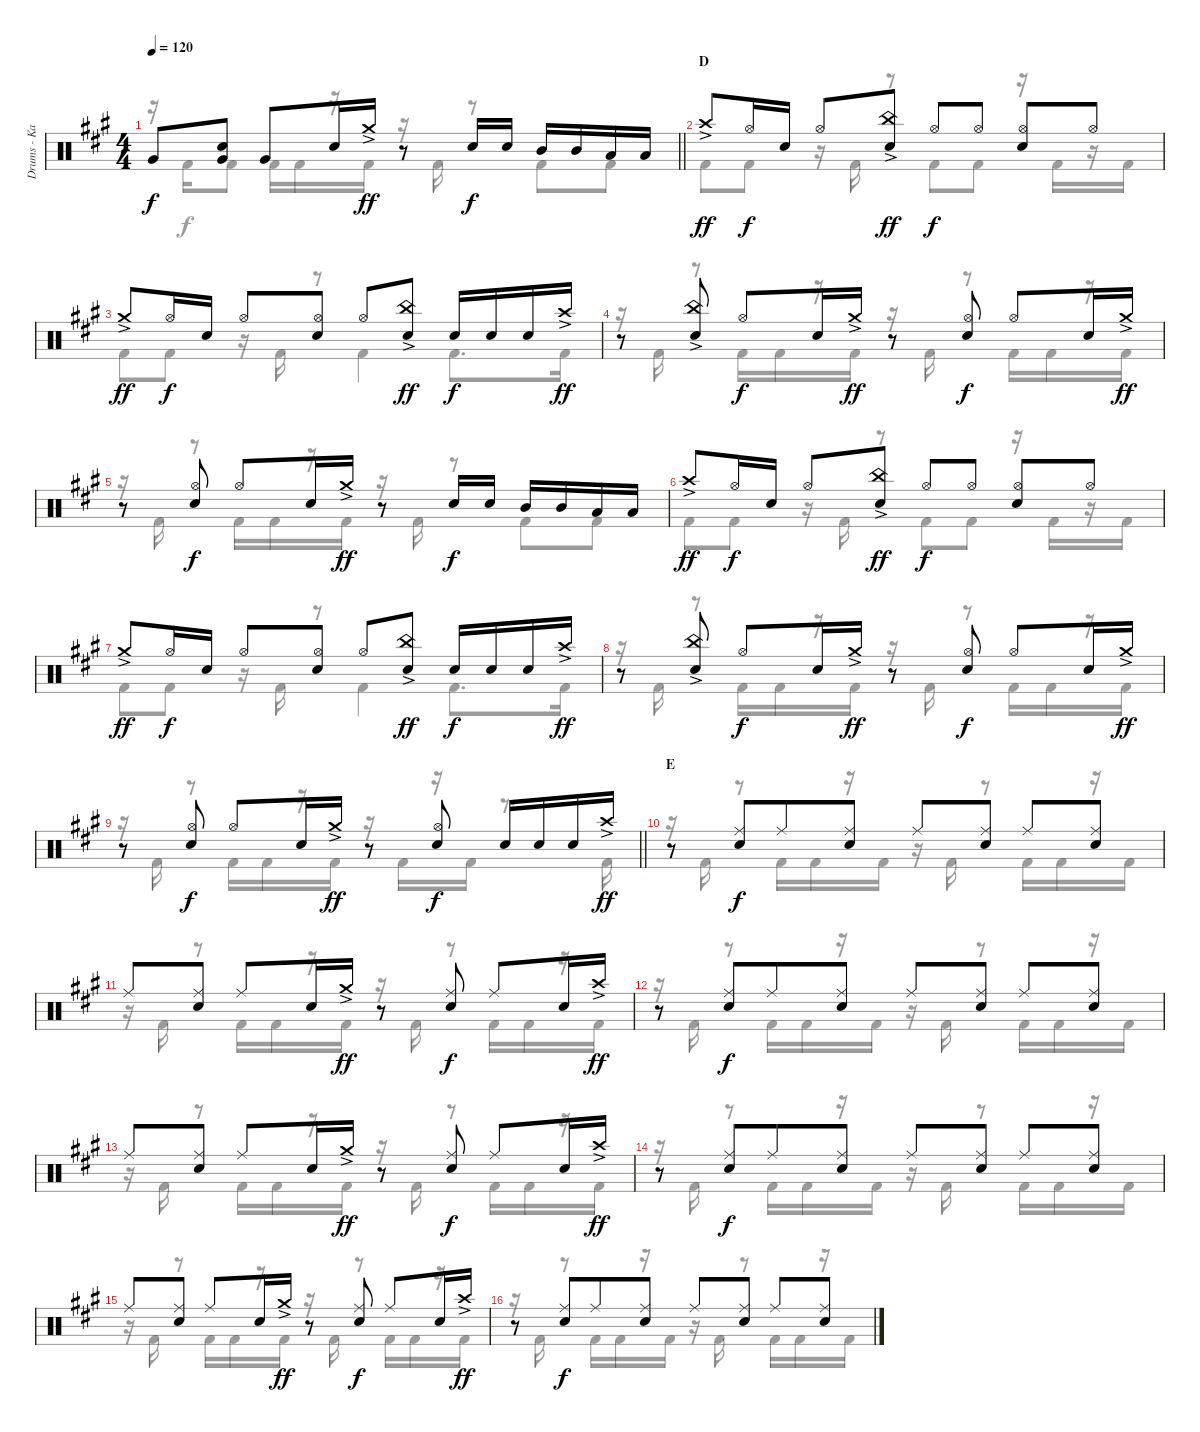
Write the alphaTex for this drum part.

\track ("Drums - Kai" "Drums - Ka") {instrument percussion}
\staff {score}
\articulation defaults
\voice
\ts (4 4)
\tempo 120
\clef neutral
\barLineRight lightlight
\ks a "Very Low Tom (hit)".8{dy f}
("Very Low Tom (hit)" "Snare (hit) 2").8 "Very Low Tom (hit)".8 "Snare (hit) 2".16 "Crash medium (hit)"{ac}.16{dy ff} r.8 "Snare (hit) 2".16{dy f} "Snare (hit) 2".16 "Mid Tom (hit)".16 "Mid Tom (hit)".16 "Low Tom (hit)".16 "Low Tom (hit)".16 |
\section ("" "D")
"Crash high (hit)"{ac}.8{dy ff} "Hi-Hat (open)".16{dy f} "Snare (hit) 2".16 "Hi-Hat (open)".8 ("China (hit)"{ac} "Snare (hit) 2").8{dy ff} "Hi-Hat (open)".8{dy f} "Hi-Hat (open)".8 ("Hi-Hat (open)" "Snare (hit) 2").8 "Hi-Hat (open)".8 |
"Crash medium (hit)"{ac}.8{dy ff} "Hi-Hat (open)".16{dy f} "Snare (hit) 2".16 "Hi-Hat (open)".8 ("Hi-Hat (open)" "Snare (hit) 2").8 "Hi-Hat (open)".8 ("China (hit)"{ac} "Snare (hit) 2").8{dy ff} "Snare (hit) 2".16{dy f} "Snare (hit) 2".16 "Snare (hit) 2".16 "Crash high (hit)"{ac}.16{dy ff} |
r.8 ("China (hit)"{ac} "Snare (hit) 2").8 "Hi-Hat (open)".8{dy f} "Snare (hit) 2".16 "Crash medium (hit)"{ac}.16{dy ff} r.8 ("Hi-Hat (open)" "Snare (hit) 2").8{dy f} "Hi-Hat (open)".8 "Snare (hit) 2".16 "Crash medium (hit)"{ac}.16{dy ff} |
r.8 ("Hi-Hat (open)" "Snare (hit) 2").8{dy f} "Hi-Hat (open)".8 "Snare (hit) 2".16 "Crash medium (hit)"{ac}.16{dy ff} r.8 "Snare (hit) 2".16{dy f} "Snare (hit) 2".16 "Mid Tom (hit)".16 "Mid Tom (hit)".16 "Low Tom (hit)".16 "Low Tom (hit)".16 |
"Crash high (hit)"{ac}.8{dy ff} "Hi-Hat (open)".16{dy f} "Snare (hit) 2".16 "Hi-Hat (open)".8 ("China (hit)"{ac} "Snare (hit) 2").8{dy ff} "Hi-Hat (open)".8{dy f} "Hi-Hat (open)".8 ("Hi-Hat (open)" "Snare (hit) 2").8 "Hi-Hat (open)".8 |
"Crash medium (hit)"{ac}.8{dy ff} "Hi-Hat (open)".16{dy f} "Snare (hit) 2".16 "Hi-Hat (open)".8 ("Hi-Hat (open)" "Snare (hit) 2").8 "Hi-Hat (open)".8 ("China (hit)"{ac} "Snare (hit) 2").8{dy ff} "Snare (hit) 2".16{dy f} "Snare (hit) 2".16 "Snare (hit) 2".16 "Crash high (hit)"{ac}.16{dy ff} |
r.8 ("China (hit)"{ac} "Snare (hit) 2").8 "Hi-Hat (open)".8{dy f} "Snare (hit) 2".16 "Crash medium (hit)"{ac}.16{dy ff} r.8 ("Hi-Hat (open)" "Snare (hit) 2").8{dy f} "Hi-Hat (open)".8 "Snare (hit) 2".16 "Crash medium (hit)"{ac}.16{dy ff} |
\barLineRight lightlight
r.8 ("Hi-Hat (open)" "Snare (hit) 2").8{dy f} "Hi-Hat (open)".8 "Snare (hit) 2".16 "Crash medium (hit)"{ac}.16{dy ff} r.8 ("Hi-Hat (open)" "Snare (hit) 2").8{dy f} "Snare (hit) 2".16 "Snare (hit) 2".16 "Snare (hit) 2".16 "Crash high (hit)"{ac}.16{dy ff} |
\section ("" "E")
r.8 ("Ride (middle)" "Snare (hit) 2").8{dy f beam merge} "Ride (middle)".8 ("Ride (middle)" "Snare (hit) 2").8 "Ride (middle)".8 ("Ride (middle)" "Snare (hit) 2").8 "Ride (middle)".8 ("Ride (middle)" "Snare (hit) 2").8 |
"Ride (middle)".8 ("Ride (middle)" "Snare (hit) 2").8 "Ride (middle)".8 "Snare (hit) 2".16 "Crash medium (hit)"{ac}.16{dy ff} r.8 ("Ride (middle)" "Snare (hit) 2").8{dy f} "Ride (middle)".8 "Snare (hit) 2".16 "Crash high (hit)"{ac}.16{dy ff} |
r.8 ("Ride (middle)" "Snare (hit) 2").8{dy f beam merge} "Ride (middle)".8 ("Ride (middle)" "Snare (hit) 2").8 "Ride (middle)".8 ("Ride (middle)" "Snare (hit) 2").8 "Ride (middle)".8 ("Ride (middle)" "Snare (hit) 2").8 |
"Ride (middle)".8 ("Ride (middle)" "Snare (hit) 2").8 "Ride (middle)".8 "Snare (hit) 2".16 "Crash medium (hit)"{ac}.16{dy ff} r.8 ("Ride (middle)" "Snare (hit) 2").8{dy f} "Ride (middle)".8 "Snare (hit) 2".16 "Crash high (hit)"{ac}.16{dy ff} |
r.8 ("Ride (middle)" "Snare (hit) 2").8{dy f beam merge} "Ride (middle)".8 ("Ride (middle)" "Snare (hit) 2").8 "Ride (middle)".8 ("Ride (middle)" "Snare (hit) 2").8 "Ride (middle)".8 ("Ride (middle)" "Snare (hit) 2").8 |
"Ride (middle)".8 ("Ride (middle)" "Snare (hit) 2").8 "Ride (middle)".8 "Snare (hit) 2".16 "Crash medium (hit)"{ac}.16{dy ff} r.8 ("Ride (middle)" "Snare (hit) 2").8{dy f} "Ride (middle)".8 "Snare (hit) 2".16 "Crash high (hit)"{ac}.16{dy ff} |
r.8 ("Ride (middle)" "Snare (hit) 2").8{dy f beam merge} "Ride (middle)".8 ("Ride (middle)" "Snare (hit) 2").8 "Ride (middle)".8 ("Ride (middle)" "Snare (hit) 2").8 "Ride (middle)".8 ("Ride (middle)" "Snare (hit) 2").8
\voice
\clef neutral
\ottava regular
\simile none
\barLineRight lightlight
\ks a
r.16{dy f} "Kick (hit) 2".16 "Kick (hit) 2".8 "Kick (hit) 2".16 "Kick (hit) 2".16 r.16 "Kick (hit) 2".16 r.16 "Kick (hit) 2".16 r.8 "Kick (hit) 2".8 "Kick (hit) 2".8 |
"Kick (hit) 2".8 "Kick (hit) 2".8 r.16 "Kick (hit) 2".16 r.8 "Kick (hit) 2".8 "Kick (hit) 2".8 r.16 "Kick (hit) 2".16 r.16 "Kick (hit) 2".16 |
"Kick (hit) 2".8 "Kick (hit) 2".8 r.16 "Kick (hit) 2".16 r.8 "Kick (hit) 2".4 "Kick (hit) 2".8{d} "Kick (hit) 2".16 |
r.16 "Kick (hit) 2".16 r.8 "Kick (hit) 2".16 "Kick (hit) 2".16 r.16 "Kick (hit) 2".16 r.16 "Kick (hit) 2".16 r.8 "Kick (hit) 2".16 "Kick (hit) 2".16 r.16 "Kick (hit) 2".16 |
r.16 "Kick (hit) 2".16 r.8 "Kick (hit) 2".16 "Kick (hit) 2".16 r.16 "Kick (hit) 2".16 r.16 "Kick (hit) 2".16 r.8 "Kick (hit) 2".8 "Kick (hit) 2".8 |
"Kick (hit) 2".8 "Kick (hit) 2".8 r.16 "Kick (hit) 2".16 r.8 "Kick (hit) 2".8 "Kick (hit) 2".8 r.16 "Kick (hit) 2".16 r.16 "Kick (hit) 2".16 |
"Kick (hit) 2".8 "Kick (hit) 2".8 r.16 "Kick (hit) 2".16 r.8 "Kick (hit) 2".4 "Kick (hit) 2".8{d} "Kick (hit) 2".16 |
r.16 "Kick (hit) 2".16 r.8 "Kick (hit) 2".16 "Kick (hit) 2".16 r.16 "Kick (hit) 2".16 r.16 "Kick (hit) 2".16 r.8 "Kick (hit) 2".16 "Kick (hit) 2".16 r.16 "Kick (hit) 2".16 |
\barLineRight lightlight
r.16 "Kick (hit) 2".16 r.8 "Kick (hit) 2".16 "Kick (hit) 2".16 r.16 "Kick (hit) 2".16 r.16 "Kick (hit) 2".16 r.16 "Kick (hit) 2".16 r.8{d} "Kick (hit) 2".16 |
r.16 "Kick (hit) 2".16 r.8 "Kick (hit) 2".16 "Kick (hit) 2".16 r.16 "Kick (hit) 2".16 r.16 "Kick (hit) 2".16 r.8 "Kick (hit) 2".16 "Kick (hit) 2".16 r.16 "Kick (hit) 2".16 |
r.16 "Kick (hit) 2".16 r.8 "Kick (hit) 2".16 "Kick (hit) 2".16 r.16 "Kick (hit) 2".16 r.16 "Kick (hit) 2".16 r.8 "Kick (hit) 2".16 "Kick (hit) 2".16 r.16 "Kick (hit) 2".16 |
r.16 "Kick (hit) 2".16 r.8 "Kick (hit) 2".16 "Kick (hit) 2".16 r.16 "Kick (hit) 2".16 r.16 "Kick (hit) 2".16 r.8 "Kick (hit) 2".16 "Kick (hit) 2".16 r.16 "Kick (hit) 2".16 |
r.16 "Kick (hit) 2".16 r.8 "Kick (hit) 2".16 "Kick (hit) 2".16 r.16 "Kick (hit) 2".16 r.16 "Kick (hit) 2".16 r.8 "Kick (hit) 2".16 "Kick (hit) 2".16 r.16 "Kick (hit) 2".16 |
r.16 "Kick (hit) 2".16 r.8 "Kick (hit) 2".16 "Kick (hit) 2".16 r.16 "Kick (hit) 2".16 r.16 "Kick (hit) 2".16 r.8 "Kick (hit) 2".16 "Kick (hit) 2".16 r.16 "Kick (hit) 2".16 |
r.16 "Kick (hit) 2".16 r.8 "Kick (hit) 2".16 "Kick (hit) 2".16 r.16 "Kick (hit) 2".16 r.16 "Kick (hit) 2".16 r.8 "Kick (hit) 2".16 "Kick (hit) 2".16 r.16 "Kick (hit) 2".16 |
r.16 "Kick (hit) 2".16 r.8 "Kick (hit) 2".16 "Kick (hit) 2".16 r.16 "Kick (hit) 2".16 r.16 "Kick (hit) 2".16 r.8 "Kick (hit) 2".16 "Kick (hit) 2".16 r.16 "Kick (hit) 2".16
